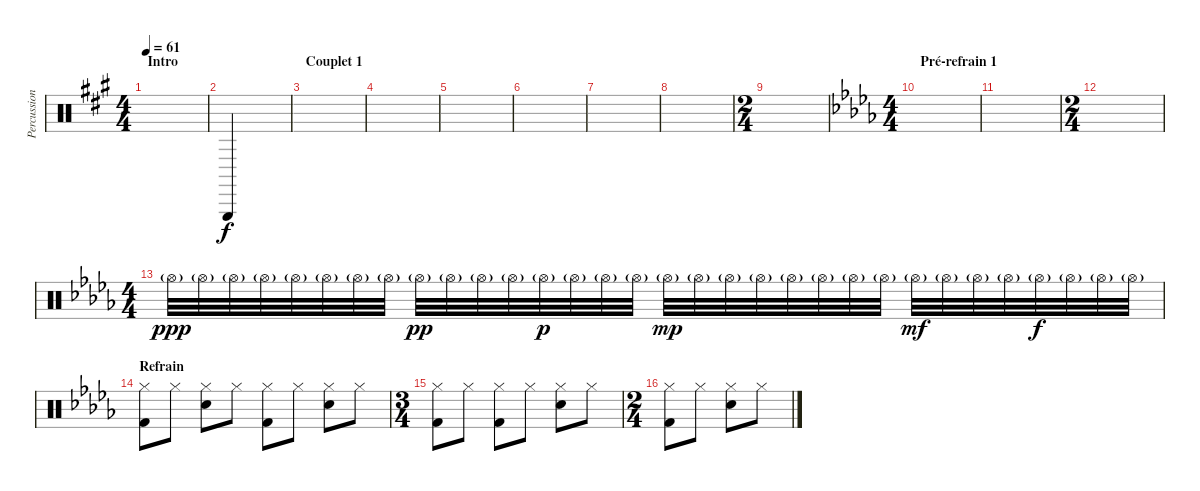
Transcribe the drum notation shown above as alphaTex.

\track ("Percussions" "Percussion") {instrument percussion}
\staff {score}
\articulation defaults
\ts (4 4)
\section ("" "Intro")
\tempo 61
\clef neutral
\ks a
|
"Triangle (hit)".4 |
\section ("" "Couplet 1")
|
|
|
|
|
|
\ts (2 4)
|
\ts (4 4)
\section ("" "Pré-refrain 1")
\ks db
|
|
\ts (2 4)
|
\ts (4 4)
"Hi-Hat (open)"{g}.32{dy ppp} "Hi-Hat (open)"{g}.32 "Hi-Hat (open)"{g}.32 "Hi-Hat (open)"{g}.32 "Hi-Hat (open)"{g}.32 "Hi-Hat (open)"{g}.32 "Hi-Hat (open)"{g}.32 "Hi-Hat (open)"{g}.32 "Hi-Hat (open)"{g}.32{dy pp} "Hi-Hat (open)"{g}.32 "Hi-Hat (open)"{g}.32 "Hi-Hat (open)"{g}.32 "Hi-Hat (open)"{g}.32{dy p} "Hi-Hat (open)"{g}.32 "Hi-Hat (open)"{g}.32 "Hi-Hat (open)"{g}.32 "Hi-Hat (open)"{g}.32{dy mp} "Hi-Hat (open)"{g}.32 "Hi-Hat (open)"{g}.32 "Hi-Hat (open)"{g}.32 "Hi-Hat (open)"{g}.32 "Hi-Hat (open)"{g}.32 "Hi-Hat (open)"{g}.32 "Hi-Hat (open)"{g}.32 "Hi-Hat (open)"{g}.32{dy mf} "Hi-Hat (open)"{g}.32 "Hi-Hat (open)"{g}.32 "Hi-Hat (open)"{g}.32 "Hi-Hat (open)"{g}.32{dy f} "Hi-Hat (open)"{g}.32 "Hi-Hat (open)"{g}.32 "Hi-Hat (open)"{g}.32 |
\section ("" "Refrain")
("Hi-Hat (closed)" "Kick (hit) 2").8 "Hi-Hat (closed)".8 ("Hi-Hat (closed)" "Electric Snare (hit)").8 "Hi-Hat (closed)".8 ("Hi-Hat (closed)" "Kick (hit) 2").8 "Hi-Hat (closed)".8 ("Hi-Hat (closed)" "Electric Snare (hit)").8 "Hi-Hat (closed)".8 |
\ts (3 4)
("Hi-Hat (closed)" "Kick (hit) 2").8 "Hi-Hat (closed)".8 ("Hi-Hat (closed)" "Kick (hit) 2").8 "Hi-Hat (closed)".8 ("Hi-Hat (closed)" "Electric Snare (hit)").8 "Hi-Hat (closed)".8 |
\ts (2 4)
("Hi-Hat (closed)" "Kick (hit) 2").8 "Hi-Hat (closed)".8 ("Hi-Hat (closed)" "Electric Snare (hit)").8 "Hi-Hat (closed)".8
